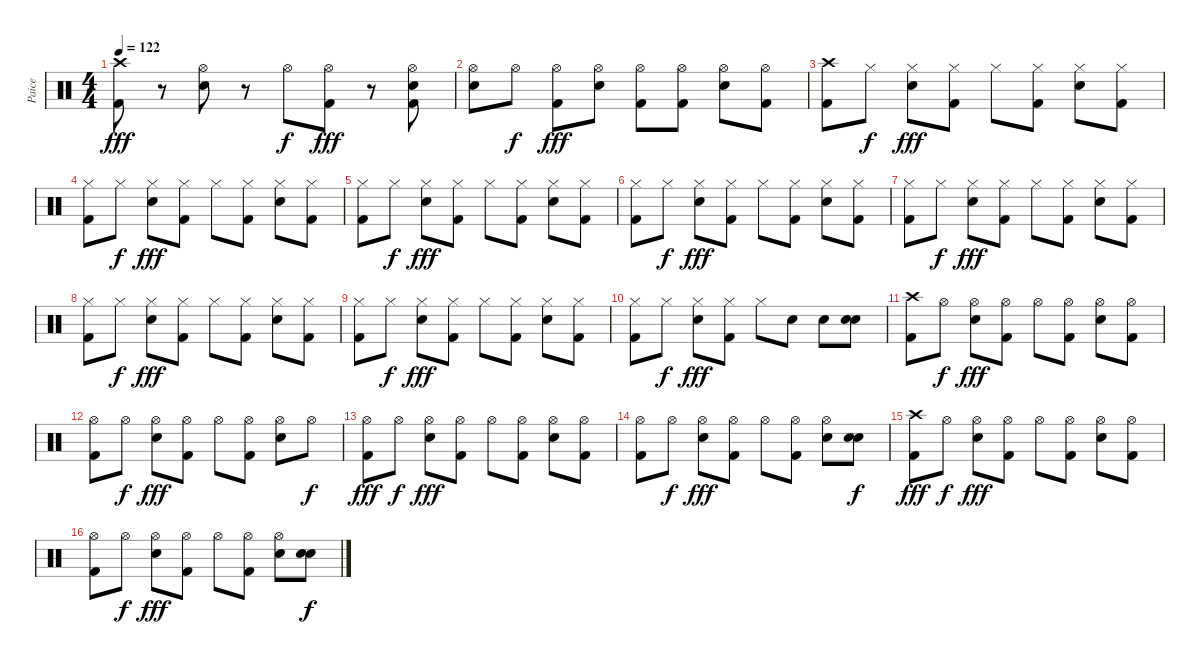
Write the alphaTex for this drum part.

\track ("Paice" "Paice") {instrument percussion}
\staff {score}
\articulation defaults
\ts (4 4)
\tempo 122
\clef neutral
\ks c
("Kick (hit) 2" "Crash high (hit)").8{dy fff} r.8 ("Electric Snare (hit)" "Hi-Hat (open)").8 r.8 "Hi-Hat (open)".8{dy f} ("Kick (hit) 2" "Hi-Hat (open)").8{dy fff} r.8 ("Kick (hit) 2" "Electric Snare (hit)" "Hi-Hat (open)").8 |
("Hi-Hat (open)" "Electric Snare (hit)").8 "Hi-Hat (open)".8{dy f} ("Hi-Hat (open)" "Kick (hit) 2").8{dy fff} ("Hi-Hat (open)" "Electric Snare (hit)").8 ("Kick (hit) 2" "Hi-Hat (open)").8 ("Hi-Hat (open)" "Kick (hit) 2").8 ("Hi-Hat (open)" "Electric Snare (hit)").8 ("Hi-Hat (open)" "Kick (hit) 2").8 |
("Crash high (hit)" "Kick (hit) 2").8 "Hi-Hat (closed)".8{dy f} ("Hi-Hat (closed)" "Electric Snare (hit)").8{dy fff} ("Kick (hit) 2" "Hi-Hat (closed)").8 "Hi-Hat (closed)".8 ("Kick (hit) 2" "Hi-Hat (closed)").8 ("Hi-Hat (closed)" "Electric Snare (hit)").8 ("Kick (hit) 2" "Hi-Hat (closed)").8 |
("Hi-Hat (closed)" "Kick (hit) 2").8 "Hi-Hat (closed)".8{dy f} ("Electric Snare (hit)" "Hi-Hat (closed)").8{dy fff} ("Kick (hit) 2" "Hi-Hat (closed)").8 "Hi-Hat (closed)".8 ("Hi-Hat (closed)" "Kick (hit) 2").8 ("Hi-Hat (closed)" "Electric Snare (hit)").8 ("Kick (hit) 2" "Hi-Hat (closed)").8 |
("Hi-Hat (closed)" "Kick (hit) 2").8 "Hi-Hat (closed)".8{dy f} ("Hi-Hat (closed)" "Electric Snare (hit)").8{dy fff} ("Hi-Hat (closed)" "Kick (hit) 2").8 "Hi-Hat (closed)".8 ("Kick (hit) 2" "Hi-Hat (closed)").8 ("Electric Snare (hit)" "Hi-Hat (closed)").8 ("Hi-Hat (closed)" "Kick (hit) 2").8 |
("Kick (hit) 2" "Hi-Hat (closed)").8 "Hi-Hat (closed)".8{dy f} ("Hi-Hat (closed)" "Electric Snare (hit)").8{dy fff} ("Kick (hit) 2" "Hi-Hat (closed)").8 "Hi-Hat (closed)".8 ("Hi-Hat (closed)" "Kick (hit) 2").8 ("Hi-Hat (closed)" "Electric Snare (hit)").8 ("Kick (hit) 2" "Hi-Hat (closed)").8 |
("Hi-Hat (closed)" "Kick (hit) 2").8 "Hi-Hat (closed)".8{dy f} ("Hi-Hat (closed)" "Electric Snare (hit)").8{dy fff} ("Kick (hit) 2" "Hi-Hat (closed)").8 "Hi-Hat (closed)".8 ("Kick (hit) 2" "Hi-Hat (closed)").8 ("Hi-Hat (closed)" "Electric Snare (hit)").8 ("Hi-Hat (closed)" "Kick (hit) 2").8 |
("Kick (hit) 2" "Hi-Hat (closed)").8 "Hi-Hat (closed)".8{dy f} ("Electric Snare (hit)" "Hi-Hat (closed)").8{dy fff} ("Hi-Hat (closed)" "Kick (hit) 2").8 "Hi-Hat (closed)".8 ("Kick (hit) 2" "Hi-Hat (closed)").8 ("Hi-Hat (closed)" "Electric Snare (hit)").8 ("Kick (hit) 2" "Hi-Hat (closed)").8 |
("Hi-Hat (closed)" "Kick (hit) 2").8 "Hi-Hat (closed)".8{dy f} ("Hi-Hat (closed)" "Electric Snare (hit)").8{dy fff} ("Kick (hit) 2" "Hi-Hat (closed)").8 "Hi-Hat (closed)".8 ("Hi-Hat (closed)" "Kick (hit) 2").8 ("Electric Snare (hit)" "Hi-Hat (closed)").8 ("Hi-Hat (closed)" "Kick (hit) 2").8 |
("Hi-Hat (closed)" "Kick (hit) 2").8 "Hi-Hat (closed)".8{dy f} ("Hi-Hat (closed)" "Electric Snare (hit)").8{dy fff} ("Hi-Hat (closed)" "Kick (hit) 2").8 "Hi-Hat (closed)".8 "Electric Snare (hit)".8 "Electric Snare (hit)".8 ("Electric Snare (hit)" "Electric Snare (hit)").8 |
("Crash high (hit)" "Kick (hit) 2").8 "Hi-Hat (open)".8{dy f} ("Electric Snare (hit)" "Hi-Hat (open)").8{dy fff} ("Kick (hit) 2" "Hi-Hat (open)").8 "Hi-Hat (open)".8 ("Hi-Hat (open)" "Kick (hit) 2").8 ("Hi-Hat (open)" "Electric Snare (hit)").8 ("Kick (hit) 2" "Hi-Hat (open)").8 |
("Hi-Hat (open)" "Kick (hit) 2").8 "Hi-Hat (open)".8{dy f} ("Electric Snare (hit)" "Hi-Hat (open)").8{dy fff} ("Kick (hit) 2" "Hi-Hat (open)").8 "Hi-Hat (open)".8 ("Hi-Hat (open)" "Kick (hit) 2").8 ("Hi-Hat (open)" "Electric Snare (hit)").8 "Hi-Hat (open)".8{dy f} |
("Kick (hit) 2" "Hi-Hat (open)").8{dy fff} "Hi-Hat (open)".8{dy f} ("Hi-Hat (open)" "Electric Snare (hit)").8{dy fff} ("Kick (hit) 2" "Hi-Hat (open)").8 "Hi-Hat (open)".8 ("Hi-Hat (open)" "Kick (hit) 2").8 ("Electric Snare (hit)" "Hi-Hat (open)").8 ("Kick (hit) 2" "Hi-Hat (open)").8 |
("Hi-Hat (open)" "Kick (hit) 2").8 "Hi-Hat (open)".8{dy f} ("Electric Snare (hit)" "Hi-Hat (open)").8{dy fff} ("Kick (hit) 2" "Hi-Hat (open)").8 "Hi-Hat (open)".8 ("Hi-Hat (open)" "Kick (hit) 2").8 ("Hi-Hat (open)" "Electric Snare (hit)").8 ("Electric Snare (hit)" "Electric Snare (hit)").8{dy f} |
("Kick (hit) 2" "Crash high (hit)").8{dy fff} "Hi-Hat (open)".8{dy f} ("Electric Snare (hit)" "Hi-Hat (open)").8{dy fff} ("Kick (hit) 2" "Hi-Hat (open)").8 "Hi-Hat (open)".8 ("Hi-Hat (open)" "Kick (hit) 2").8 ("Hi-Hat (open)" "Electric Snare (hit)").8 ("Kick (hit) 2" "Hi-Hat (open)").8 |
("Hi-Hat (open)" "Kick (hit) 2").8 "Hi-Hat (open)".8{dy f} ("Electric Snare (hit)" "Hi-Hat (open)").8{dy fff} ("Kick (hit) 2" "Hi-Hat (open)").8 "Hi-Hat (open)".8 ("Kick (hit) 2" "Hi-Hat (open)").8 ("Electric Snare (hit)" "Hi-Hat (open)").8 ("Electric Snare (hit)" "Electric Snare (hit)").8{dy f}
